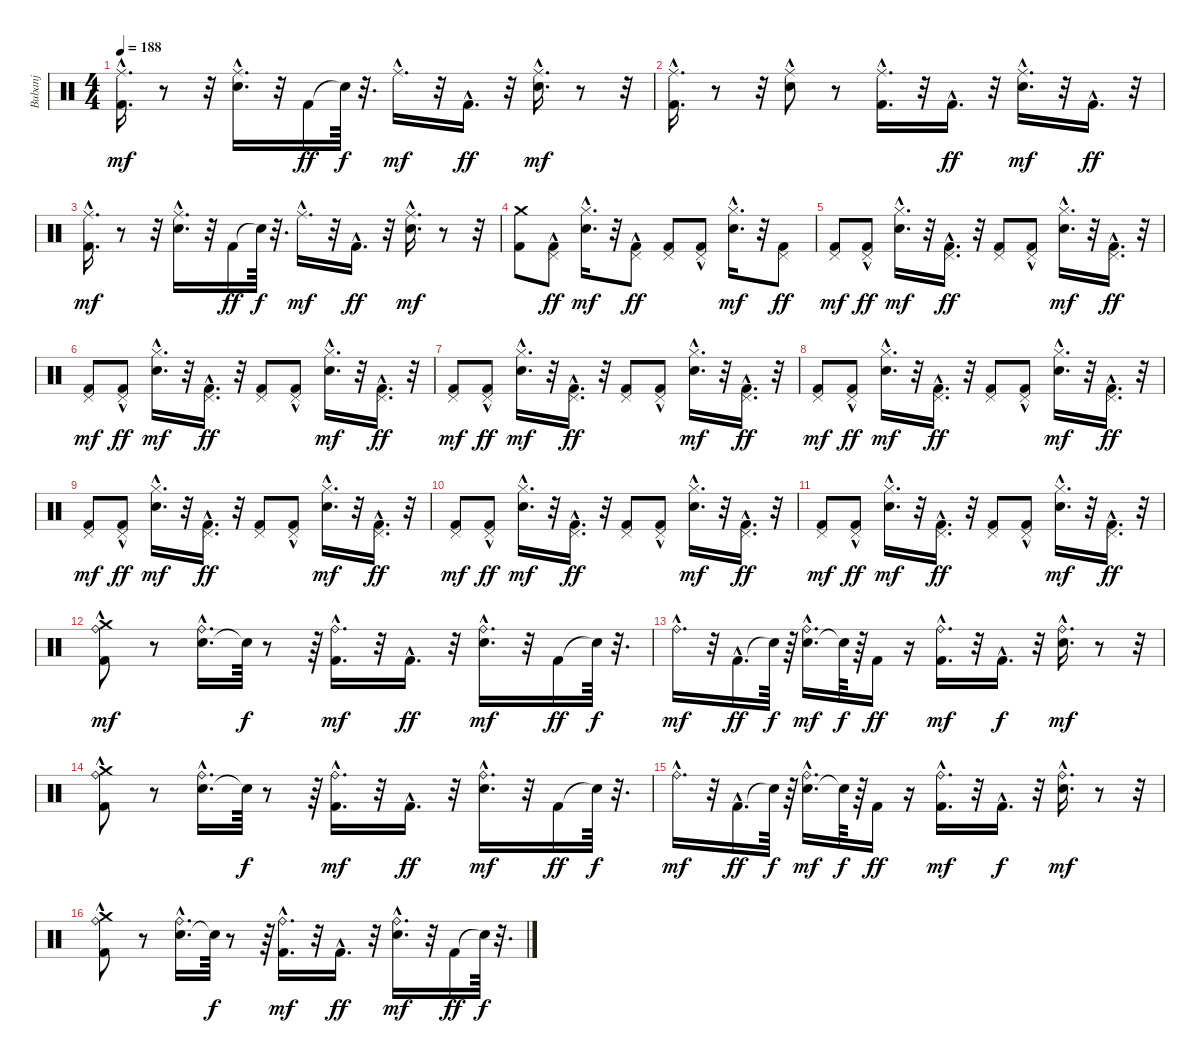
\track ("Bubanj" "Bubanj") {instrument percussion}
\staff {score}
\articulation defaults
\ts (4 4)
\tempo 188
\clef neutral
\ks c
("Kick (hit) 2"{hac} "Ride (middle)"{hac}).16{d dy mf} r.8 r.32 ("Electric Snare (hit)" "Ride (middle)"{hac}).16{d} r.32 "Kick (hit) 2".16{dy ff} "Snare (hit)"{t}.64{dy f} r.32{d} "Ride (middle)"{hac}.16{d dy mf} r.32 "Kick (hit) 2"{hac}.16{d dy ff} r.32 ("Electric Snare (hit)" "Ride (middle)"{hac}).16{d dy mf} r.8 r.32 |
("Kick (hit) 2"{hac} "Ride (middle)"{hac}).16{d} r.8 r.32 ("Electric Snare (hit)" "Ride (middle)"{hac}).8 r.8 ("Kick (hit) 2" "Ride (middle)"{hac}).16{d} r.32 "Kick (hit) 2"{hac}.16{d dy ff} r.32 ("Electric Snare (hit)" "Ride (middle)"{hac}).16{d dy mf} r.32 "Kick (hit) 2"{hac}.16{d dy ff} r.32 |
("Kick (hit) 2"{hac} "Ride (middle)"{hac}).16{d dy mf} r.8 r.32 ("Electric Snare (hit)" "Ride (middle)"{hac}).16{d} r.32 "Kick (hit) 2".16{dy ff} "Snare (hit)"{t}.64{dy f} r.32{d} "Ride (middle)"{hac}.16{d dy mf} r.32 "Kick (hit) 2"{hac}.16{d dy ff} r.32 ("Electric Snare (hit)" "Ride (middle)"{hac}).16{d dy mf} r.8 r.32 |
("Kick (hit) 2" "Crash medium (hit)").8 ("Pedal Hi-Hat (hit)"{hac} "Kick (hit) 2").8{dy ff} ("Electric Snare (hit)"{hac} "Hi-Hat (closed)").16{d dy mf} r.32 ("Pedal Hi-Hat (hit)"{hac} "Kick (hit) 2").8{dy ff} ("Pedal Hi-Hat (hit)" "Kick (hit) 2").8 ("Pedal Hi-Hat (hit)"{hac} "Kick (hit) 2").8 ("Electric Snare (hit)"{hac} "Hi-Hat (closed)").16{d dy mf} r.32 ("Pedal Hi-Hat (hit)" "Kick (hit) 2").8{dy ff} |
("Kick (hit) 2" "Pedal Hi-Hat (hit)").8{dy mf} ("Pedal Hi-Hat (hit)"{hac} "Kick (hit) 2").8{dy ff} ("Electric Snare (hit)"{hac} "Hi-Hat (closed)").16{d dy mf} r.32 ("Pedal Hi-Hat (hit)"{hac} "Kick (hit) 2"{hac}).16{d dy ff} r.32 ("Pedal Hi-Hat (hit)" "Kick (hit) 2").8 ("Pedal Hi-Hat (hit)"{hac} "Kick (hit) 2").8 ("Electric Snare (hit)"{hac} "Hi-Hat (closed)").16{d dy mf} r.32 ("Pedal Hi-Hat (hit)" "Kick (hit) 2"{hac}).16{d dy ff} r.32 |
("Kick (hit) 2" "Pedal Hi-Hat (hit)").8{dy mf} ("Pedal Hi-Hat (hit)"{hac} "Kick (hit) 2").8{dy ff} ("Electric Snare (hit)"{hac} "Hi-Hat (closed)").16{d dy mf} r.32 ("Pedal Hi-Hat (hit)"{hac} "Kick (hit) 2"{hac}).16{d dy ff} r.32 ("Pedal Hi-Hat (hit)" "Kick (hit) 2").8 ("Pedal Hi-Hat (hit)"{hac} "Kick (hit) 2").8 ("Electric Snare (hit)"{hac} "Hi-Hat (closed)").16{d dy mf} r.32 ("Pedal Hi-Hat (hit)" "Kick (hit) 2"{hac}).16{d dy ff} r.32 |
("Kick (hit) 2" "Pedal Hi-Hat (hit)").8{dy mf} ("Pedal Hi-Hat (hit)"{hac} "Kick (hit) 2").8{dy ff} ("Electric Snare (hit)"{hac} "Hi-Hat (closed)").16{d dy mf} r.32 ("Pedal Hi-Hat (hit)"{hac} "Kick (hit) 2"{hac}).16{d dy ff} r.32 ("Pedal Hi-Hat (hit)" "Kick (hit) 2").8 ("Pedal Hi-Hat (hit)"{hac} "Kick (hit) 2").8 ("Electric Snare (hit)"{hac} "Hi-Hat (closed)").16{d dy mf} r.32 ("Pedal Hi-Hat (hit)" "Kick (hit) 2"{hac}).16{d dy ff} r.32 |
("Kick (hit) 2" "Pedal Hi-Hat (hit)").8{dy mf} ("Pedal Hi-Hat (hit)"{hac} "Kick (hit) 2").8{dy ff} ("Electric Snare (hit)"{hac} "Hi-Hat (closed)").16{d dy mf} r.32 ("Pedal Hi-Hat (hit)"{hac} "Kick (hit) 2"{hac}).16{d dy ff} r.32 ("Pedal Hi-Hat (hit)" "Kick (hit) 2").8 ("Pedal Hi-Hat (hit)"{hac} "Kick (hit) 2").8 ("Electric Snare (hit)"{hac} "Hi-Hat (closed)").16{d dy mf} r.32 ("Pedal Hi-Hat (hit)" "Kick (hit) 2"{hac}).16{d dy ff} r.32 |
("Kick (hit) 2" "Pedal Hi-Hat (hit)").8{dy mf} ("Pedal Hi-Hat (hit)"{hac} "Kick (hit) 2").8{dy ff} ("Electric Snare (hit)"{hac} "Hi-Hat (closed)").16{d dy mf} r.32 ("Pedal Hi-Hat (hit)"{hac} "Kick (hit) 2"{hac}).16{d dy ff} r.32 ("Pedal Hi-Hat (hit)" "Kick (hit) 2").8 ("Pedal Hi-Hat (hit)"{hac} "Kick (hit) 2").8 ("Electric Snare (hit)"{hac} "Hi-Hat (closed)").16{d dy mf} r.32 ("Pedal Hi-Hat (hit)" "Kick (hit) 2"{hac}).16{d dy ff} r.32 |
("Kick (hit) 2" "Pedal Hi-Hat (hit)").8{dy mf} ("Pedal Hi-Hat (hit)"{hac} "Kick (hit) 2").8{dy ff} ("Electric Snare (hit)"{hac} "Hi-Hat (closed)").16{d dy mf} r.32 ("Pedal Hi-Hat (hit)"{hac} "Kick (hit) 2"{hac}).16{d dy ff} r.32 ("Pedal Hi-Hat (hit)" "Kick (hit) 2").8 ("Pedal Hi-Hat (hit)"{hac} "Kick (hit) 2").8 ("Electric Snare (hit)"{hac} "Hi-Hat (closed)").16{d dy mf} r.32 ("Pedal Hi-Hat (hit)" "Kick (hit) 2"{hac}).16{d dy ff} r.32 |
("Kick (hit) 2" "Pedal Hi-Hat (hit)").8{dy mf} ("Pedal Hi-Hat (hit)"{hac} "Kick (hit) 2").8{dy ff} ("Electric Snare (hit)"{hac} "Hi-Hat (closed)").16{d dy mf} r.32 ("Pedal Hi-Hat (hit)"{hac} "Kick (hit) 2"{hac}).16{d dy ff} r.32 ("Pedal Hi-Hat (hit)" "Kick (hit) 2").8 ("Pedal Hi-Hat (hit)"{hac} "Kick (hit) 2").8 ("Electric Snare (hit)"{hac} "Hi-Hat (closed)").16{d dy mf} r.32 ("Pedal Hi-Hat (hit)" "Kick (hit) 2"{hac}).16{d dy ff} r.32 |
("Kick (hit) 2" "Ride (bell)"{hac} "Crash medium (hit)"{hac}).8{dy mf} r.8 ("Electric Snare (hit)"{hac} "Ride (bell)"{hac}).16{d} "Snare (hit)"{t}.64{dy f} r.8 r.64 ("Kick (hit) 2" "Ride (bell)"{hac}).16{d dy mf} r.32 "Kick (hit) 2"{hac}.16{d dy ff} r.32 ("Electric Snare (hit)" "Ride (bell)"{hac}).16{d dy mf} r.32 "Kick (hit) 2".16{dy ff} "Snare (hit)"{t}.64{dy f} r.32{d} |
"Ride (bell)"{hac}.16{d dy mf} r.32 "Kick (hit) 2"{hac}.16{d dy ff} "Snare (hit)"{t}.64{dy f} r.64 ("Electric Snare (hit)"{hac} "Ride (bell)"{hac}).16{d dy mf} "Snare (hit)"{t}.64{dy f} r.64 "Kick (hit) 2".16{dy ff} r.16 ("Kick (hit) 2" "Ride (bell)"{hac}).16{d dy mf} r.32 "Kick (hit) 2"{hac}.16{d dy f} r.32 ("Electric Snare (hit)" "Ride (bell)"{hac}).16{d dy mf} r.8 r.32 |
("Kick (hit) 2" "Ride (bell)"{hac} "Crash medium (hit)"{hac}).8 r.8 ("Electric Snare (hit)"{hac} "Ride (bell)"{hac}).16{d} "Snare (hit)"{t}.64{dy f} r.8 r.64 ("Kick (hit) 2" "Ride (bell)"{hac}).16{d dy mf} r.32 "Kick (hit) 2"{hac}.16{d dy ff} r.32 ("Electric Snare (hit)" "Ride (bell)"{hac}).16{d dy mf} r.32 "Kick (hit) 2".16{dy ff} "Snare (hit)"{t}.64{dy f} r.32{d} |
"Ride (bell)"{hac}.16{d dy mf} r.32 "Kick (hit) 2"{hac}.16{d dy ff} "Snare (hit)"{t}.64{dy f} r.64 ("Electric Snare (hit)"{hac} "Ride (bell)"{hac}).16{d dy mf} "Snare (hit)"{t}.64{dy f} r.64 "Kick (hit) 2".16{dy ff} r.16 ("Kick (hit) 2" "Ride (bell)"{hac}).16{d dy mf} r.32 "Kick (hit) 2"{hac}.16{d dy f} r.32 ("Electric Snare (hit)" "Ride (bell)"{hac}).16{d dy mf} r.8 r.32 |
("Kick (hit) 2" "Ride (bell)"{hac} "Crash medium (hit)"{hac}).8 r.8 ("Electric Snare (hit)"{hac} "Ride (bell)"{hac}).16{d} "Snare (hit)"{t}.64{dy f} r.8 r.64 ("Kick (hit) 2" "Ride (bell)"{hac}).16{d dy mf} r.32 "Kick (hit) 2"{hac}.16{d dy ff} r.32 ("Electric Snare (hit)" "Ride (bell)"{hac}).16{d dy mf} r.32 "Kick (hit) 2".16{dy ff} "Snare (hit)"{t}.64{dy f} r.32{d}
